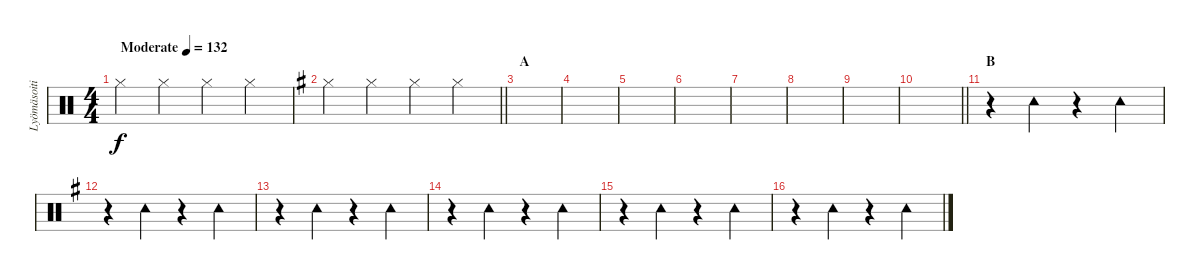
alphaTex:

\track ("Lyömäsoitin" "Lyömäsoiti") {instrument percussion}
\staff {score}
\articulation defaults
\ts (4 4)
\tempo (132 "Moderate")
\clef neutral
\ks c "Hi-Hat (closed)".4{dy f} "Hi-Hat (closed)".4 "Hi-Hat (closed)".4 "Hi-Hat (closed)".4
|
\barLineRight lightlight
\ks eminor "Hi-Hat (closed)".4 "Hi-Hat (closed)".4 "Hi-Hat (closed)".4 "Hi-Hat (closed)".4
|
\section ("" "A")
|
|
|
|
|
|
|
\barLineRight lightlight
|
\section ("" "B")
r.4 "Tambourine (hit)".4 r.4 "Tambourine (hit)".4 |
r.4 "Tambourine (hit)".4 r.4 "Tambourine (hit)".4 |
r.4 "Tambourine (hit)".4 r.4 "Tambourine (hit)".4 |
r.4 "Tambourine (hit)".4 r.4 "Tambourine (hit)".4 |
r.4 "Tambourine (hit)".4 r.4 "Tambourine (hit)".4 |
r.4 "Tambourine (hit)".4 r.4 "Tambourine (hit)".4
